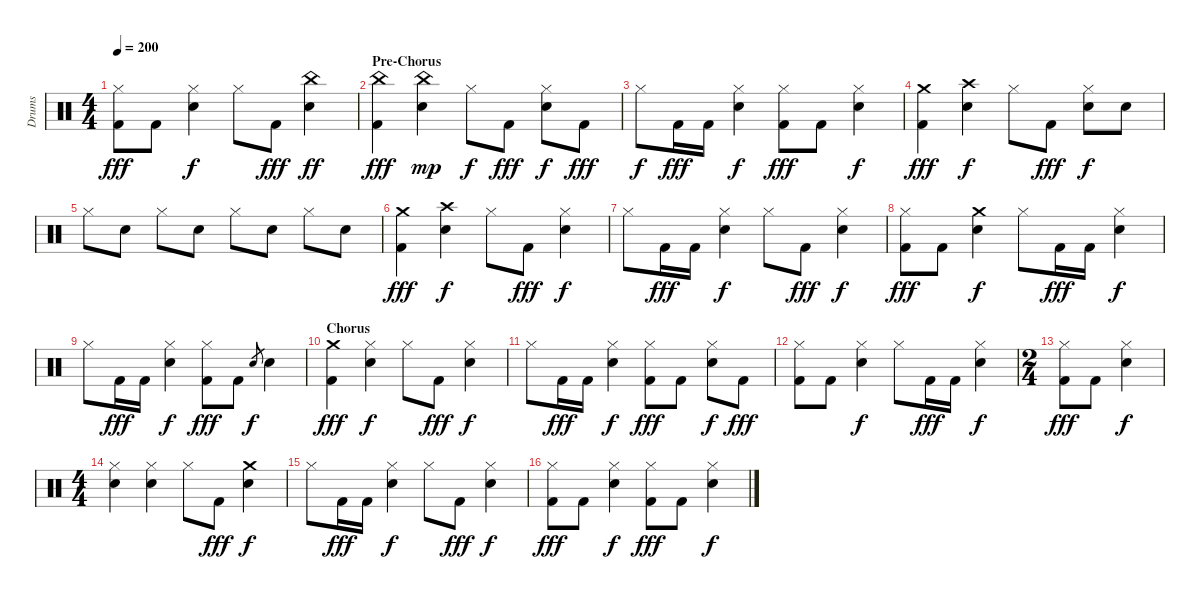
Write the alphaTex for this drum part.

\track ("Drums" "Drums") {instrument percussion}
\staff {score}
\articulation defaults
\ts (4 4)
\tempo 200
\clef neutral
\ks c
("Hi-Hat (closed)" "Kick (hit) 2").8{dy fff} "Kick (hit) 2".8 ("Hi-Hat (closed)" "Snare (hit) 2").4{dy f} "Hi-Hat (closed)".8 "Kick (hit) 2".8{dy fff} ("China (hit)" "Snare (hit) 2").4{dy ff} |
\section ("" "Pre-Chorus")
("China (hit)" "Kick (hit) 2").4{dy fff} ("China (hit)" "Snare (hit) 2").4{dy mp} "Hi-Hat (closed)".8{dy f} "Kick (hit) 2".8{dy fff} ("Hi-Hat (closed)" "Snare (hit) 2").8{dy f} "Kick (hit) 2".8{dy fff} |
"Hi-Hat (closed)".8{dy f} "Kick (hit) 2".16{dy fff} "Kick (hit) 2".16 ("Hi-Hat (closed)" "Snare (hit) 2").4{dy f} ("Hi-Hat (closed)" "Kick (hit) 2").8{dy fff} "Kick (hit) 2".8 ("Hi-Hat (closed)" "Snare (hit) 2").4{dy f} |
("Crash medium (hit)" "Kick (hit) 2").4{dy fff} ("Crash high (hit)" "Snare (hit) 2").4{dy f} "Hi-Hat (closed)".8 "Kick (hit) 2".8{dy fff} ("Hi-Hat (closed)" "Snare (hit) 2").8{dy f} "Snare (hit) 2".8 |
"Hi-Hat (closed)".8 "Snare (hit) 2".8 "Hi-Hat (closed)".8 "Snare (hit) 2".8 "Hi-Hat (closed)".8 "Snare (hit) 2".8 "Hi-Hat (closed)".8 "Snare (hit) 2".8 |
("Crash medium (hit)" "Kick (hit) 2").4{dy fff} ("Crash high (hit)" "Snare (hit) 2").4{dy f} "Hi-Hat (closed)".8 "Kick (hit) 2".8{dy fff} ("Hi-Hat (closed)" "Snare (hit) 2").4{dy f} |
"Hi-Hat (closed)".8 "Kick (hit) 2".16{dy fff} "Kick (hit) 2".16 ("Hi-Hat (closed)" "Snare (hit) 2").4{dy f} "Hi-Hat (closed)".8 "Kick (hit) 2".8{dy fff} ("Hi-Hat (closed)" "Snare (hit) 2").4{dy f} |
("Hi-Hat (closed)" "Kick (hit) 2").8{dy fff} "Kick (hit) 2".8 ("Crash medium (hit)" "Snare (hit) 2").4{dy f} "Hi-Hat (closed)".8 "Kick (hit) 2".16{dy fff} "Kick (hit) 2".16 ("Hi-Hat (closed)" "Snare (hit) 2").4{dy f} |
"Hi-Hat (closed)".8 "Kick (hit) 2".16{dy fff} "Kick (hit) 2".16 ("Hi-Hat (closed)" "Snare (hit) 2").4{dy f} ("Hi-Hat (closed)" "Kick (hit) 2").8{dy fff} "Kick (hit) 2".8 "Snare (hit) 2".8{gr dy f} "Snare (hit) 2".4 |
\section ("" "Chorus")
("Crash medium (hit)" "Kick (hit) 2").4{dy fff} ("Hi-Hat (closed)" "Snare (hit) 2").4{dy f} "Hi-Hat (closed)".8 "Kick (hit) 2".8{dy fff} ("Hi-Hat (closed)" "Snare (hit) 2").4{dy f} |
"Hi-Hat (closed)".8 "Kick (hit) 2".16{dy fff} "Kick (hit) 2".16 ("Hi-Hat (closed)" "Snare (hit) 2").4{dy f} ("Hi-Hat (closed)" "Kick (hit) 2").8{dy fff} "Kick (hit) 2".8 ("Hi-Hat (closed)" "Snare (hit) 2").8{dy f} "Kick (hit) 2".8{dy fff} |
("Hi-Hat (closed)" "Kick (hit) 2").8 "Kick (hit) 2".8 ("Hi-Hat (closed)" "Snare (hit) 2").4{dy f} "Hi-Hat (closed)".8 "Kick (hit) 2".16{dy fff} "Kick (hit) 2".16 ("Hi-Hat (closed)" "Snare (hit) 2").4{dy f} |
\ts (2 4)
("Hi-Hat (closed)" "Kick (hit) 2").8{dy fff} "Kick (hit) 2".8 ("Hi-Hat (closed)" "Snare (hit) 2").4{dy f} |
\ts (4 4)
("Hi-Hat (closed)" "Snare (hit) 2").4 ("Hi-Hat (closed)" "Snare (hit) 2").4 "Hi-Hat (closed)".8 "Kick (hit) 2".8{dy fff} ("Crash medium (hit)" "Snare (hit) 2").4{dy f} |
"Hi-Hat (closed)".8 "Kick (hit) 2".16{dy fff} "Kick (hit) 2".16 ("Hi-Hat (closed)" "Snare (hit) 2").4{dy f} "Hi-Hat (closed)".8 "Kick (hit) 2".8{dy fff} ("Hi-Hat (closed)" "Snare (hit) 2").4{dy f} |
("Hi-Hat (closed)" "Kick (hit) 2").8{dy fff} "Kick (hit) 2".8 ("Hi-Hat (closed)" "Snare (hit) 2").4{dy f} ("Hi-Hat (closed)" "Kick (hit) 2").8{dy fff} "Kick (hit) 2".8 ("Hi-Hat (closed)" "Snare (hit) 2").4{dy f}
